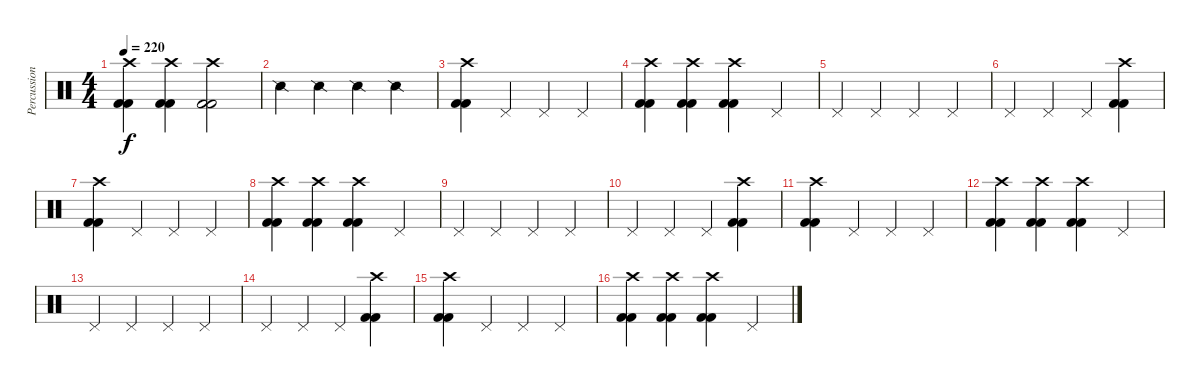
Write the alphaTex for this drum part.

\track ("Percussion" "Percussion") {instrument percussion}
\staff {score}
\articulation defaults
\ts (4 4)
\tempo 220
\clef neutral
\ks c
("Crash high (hit)" "Kick (hit) 2" "Kick (hit) 2").4{dy f} ("Crash high (hit)" "Kick (hit) 2" "Kick (hit) 2").4 ("Crash high (hit)" "Kick (hit) 2" "Kick (hit) 2").2 |
"Snare (side stick) 2".4 "Snare (side stick) 2".4 "Snare (side stick) 2".4 "Snare (side stick) 2".4 |
("Crash high (hit)" "Kick (hit) 2" "Kick (hit) 2").4 "Pedal Hi-Hat (hit)".4 "Pedal Hi-Hat (hit)".4 "Pedal Hi-Hat (hit)".4 |
("Crash high (hit)" "Kick (hit) 2" "Kick (hit) 2").4 ("Crash high (hit)" "Kick (hit) 2" "Kick (hit) 2").4 ("Crash high (hit)" "Kick (hit) 2" "Kick (hit) 2").4 "Pedal Hi-Hat (hit)".4 |
"Pedal Hi-Hat (hit)".4 "Pedal Hi-Hat (hit)".4 "Pedal Hi-Hat (hit)".4 "Pedal Hi-Hat (hit)".4 |
"Pedal Hi-Hat (hit)".4 "Pedal Hi-Hat (hit)".4 "Pedal Hi-Hat (hit)".4 ("Crash high (hit)" "Kick (hit) 2" "Kick (hit) 2").4 |
("Crash high (hit)" "Kick (hit) 2" "Kick (hit) 2").4 "Pedal Hi-Hat (hit)".4 "Pedal Hi-Hat (hit)".4 "Pedal Hi-Hat (hit)".4 |
("Crash high (hit)" "Kick (hit) 2" "Kick (hit) 2").4 ("Crash high (hit)" "Kick (hit) 2" "Kick (hit) 2").4 ("Crash high (hit)" "Kick (hit) 2" "Kick (hit) 2").4 "Pedal Hi-Hat (hit)".4 |
"Pedal Hi-Hat (hit)".4 "Pedal Hi-Hat (hit)".4 "Pedal Hi-Hat (hit)".4 "Pedal Hi-Hat (hit)".4 |
"Pedal Hi-Hat (hit)".4 "Pedal Hi-Hat (hit)".4 "Pedal Hi-Hat (hit)".4 ("Crash high (hit)" "Kick (hit) 2" "Kick (hit) 2").4 |
("Crash high (hit)" "Kick (hit) 2" "Kick (hit) 2").4 "Pedal Hi-Hat (hit)".4 "Pedal Hi-Hat (hit)".4 "Pedal Hi-Hat (hit)".4 |
("Crash high (hit)" "Kick (hit) 2" "Kick (hit) 2").4 ("Crash high (hit)" "Kick (hit) 2" "Kick (hit) 2").4 ("Crash high (hit)" "Kick (hit) 2" "Kick (hit) 2").4 "Pedal Hi-Hat (hit)".4 |
"Pedal Hi-Hat (hit)".4 "Pedal Hi-Hat (hit)".4 "Pedal Hi-Hat (hit)".4 "Pedal Hi-Hat (hit)".4 |
"Pedal Hi-Hat (hit)".4 "Pedal Hi-Hat (hit)".4 "Pedal Hi-Hat (hit)".4 ("Crash high (hit)" "Kick (hit) 2" "Kick (hit) 2").4 |
("Crash high (hit)" "Kick (hit) 2" "Kick (hit) 2").4 "Pedal Hi-Hat (hit)".4 "Pedal Hi-Hat (hit)".4 "Pedal Hi-Hat (hit)".4 |
("Crash high (hit)" "Kick (hit) 2" "Kick (hit) 2").4 ("Crash high (hit)" "Kick (hit) 2" "Kick (hit) 2").4 ("Crash high (hit)" "Kick (hit) 2" "Kick (hit) 2").4 "Pedal Hi-Hat (hit)".4
